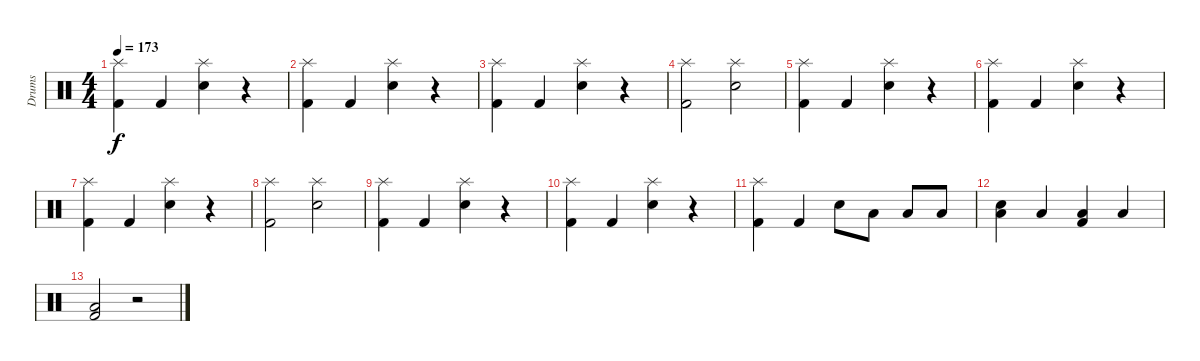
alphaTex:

\track ("Drums" "Drums") {instrument percussion}
\staff {score}
\articulation defaults
\ts (4 4)
\tempo 173
\clef neutral
\ks c
("Splash (hit)" "Kick (hit) 2").4{dy f} "Kick (hit) 2".4 ("Splash (hit)" "Snare (hit) 2").4 r.4 |
("Splash (hit)" "Kick (hit) 2").4 "Kick (hit) 2".4 ("Splash (hit)" "Snare (hit) 2").4 r.4 |
("Splash (hit)" "Kick (hit) 2").4 "Kick (hit) 2".4 ("Splash (hit)" "Snare (hit) 2").4 r.4 |
("Splash (hit)" "Kick (hit) 2").2 ("Splash (hit)" "Snare (hit) 2").2 |
("Splash (hit)" "Kick (hit) 2").4 "Kick (hit) 2".4 ("Splash (hit)" "Snare (hit) 2").4 r.4 |
("Splash (hit)" "Kick (hit) 2").4 "Kick (hit) 2".4 ("Splash (hit)" "Snare (hit) 2").4 r.4 |
("Splash (hit)" "Kick (hit) 2").4 "Kick (hit) 2".4 ("Splash (hit)" "Snare (hit) 2").4 r.4 |
("Splash (hit)" "Kick (hit) 2").2 ("Splash (hit)" "Snare (hit) 2").2 |
("Splash (hit)" "Kick (hit) 2").4 "Kick (hit) 2".4 ("Splash (hit)" "Snare (hit) 2").4 r.4 |
("Splash (hit)" "Kick (hit) 2").4 "Kick (hit) 2".4 ("Splash (hit)" "Snare (hit) 2").4 r.4 |
("Splash (hit)" "Kick (hit) 2").4 "Kick (hit) 2".4 "Snare (hit) 2".8 "Low Floor Tom (hit)".8 "Low Floor Tom (hit)".8 "Low Floor Tom (hit)".8 |
("Snare (hit) 2" "Low Floor Tom (hit)").4 "Low Floor Tom (hit)".4 ("Kick (hit) 2" "Low Floor Tom (hit)").4 "Low Floor Tom (hit)".4 |
("Kick (hit) 2" "Low Floor Tom (hit)").2 r.2
